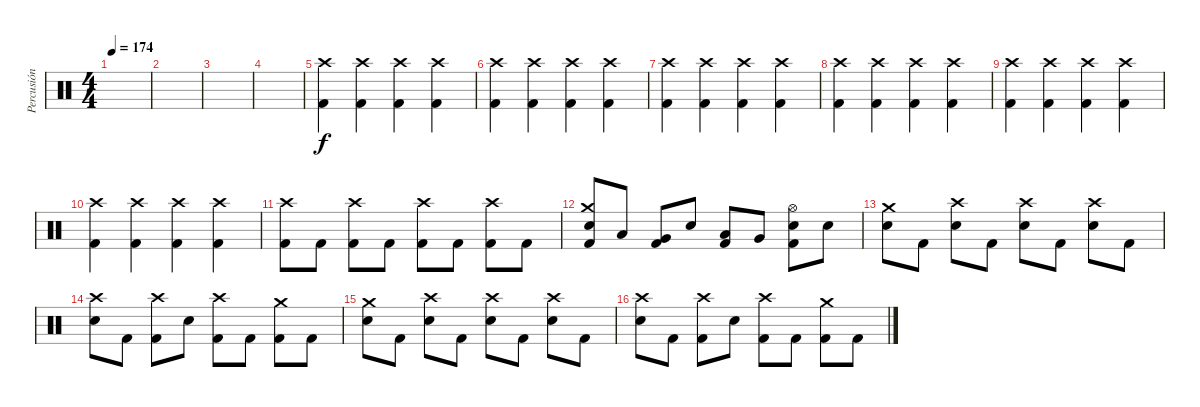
\track ("Percusión" "Percusión") {instrument percussion}
\staff {score}
\articulation defaults
\ts (4 4)
\tempo 174
\clef neutral
\ks c
|
|
|
|
("Crash high (hit)" "Kick (hit) 2").4 ("Crash high (hit)" "Kick (hit) 2").4 ("Crash high (hit)" "Kick (hit) 2").4 ("Crash high (hit)" "Kick (hit) 2").4 |
("Crash high (hit)" "Kick (hit) 2").4 ("Crash high (hit)" "Kick (hit) 2").4 ("Crash high (hit)" "Kick (hit) 2").4 ("Crash high (hit)" "Kick (hit) 2").4 |
("Crash high (hit)" "Kick (hit) 2").4 ("Crash high (hit)" "Kick (hit) 2").4 ("Crash high (hit)" "Kick (hit) 2").4 ("Crash high (hit)" "Kick (hit) 2").4 |
("Crash high (hit)" "Kick (hit) 2").4 ("Crash high (hit)" "Kick (hit) 2").4 ("Crash high (hit)" "Kick (hit) 2").4 ("Crash high (hit)" "Kick (hit) 2").4 |
("Crash high (hit)" "Kick (hit) 2").4 ("Crash high (hit)" "Kick (hit) 2").4 ("Crash high (hit)" "Kick (hit) 2").4 ("Crash high (hit)" "Kick (hit) 2").4 |
("Crash high (hit)" "Kick (hit) 2").4 ("Crash high (hit)" "Kick (hit) 2").4 ("Crash high (hit)" "Kick (hit) 2").4 ("Crash high (hit)" "Kick (hit) 2").4 |
("Crash high (hit)" "Kick (hit) 2").8 "Kick (hit) 2".8 ("Crash high (hit)" "Kick (hit) 2").8 "Kick (hit) 2".8 ("Crash high (hit)" "Kick (hit) 2").8 "Kick (hit) 2".8 ("Crash high (hit)" "Kick (hit) 2").8 "Kick (hit) 2".8 |
("Crash medium (hit)" "Electric Snare (hit)" "Kick (hit) 2").8 "Low Tom (hit)".8 ("Very Low Tom (hit)" "Kick (hit) 2").8 "Electric Snare (hit)".8 ("Low Tom (hit)" "Kick (hit) 2").8 "Very Low Tom (hit)".8 ("Hi-Hat (open)" "Electric Snare (hit)" "Kick (hit) 2").8 "Electric Snare (hit)".8 |
("Crash medium (hit)" "Electric Snare (hit)").8 "Kick (hit) 2".8 ("Crash high (hit)" "Electric Snare (hit)").8 "Kick (hit) 2".8 ("Crash high (hit)" "Electric Snare (hit)").8 "Kick (hit) 2".8 ("Crash high (hit)" "Electric Snare (hit)").8 "Kick (hit) 2".8 |
("Crash high (hit)" "Electric Snare (hit)").8 "Kick (hit) 2".8 ("Crash high (hit)" "Kick (hit) 2").8 "Electric Snare (hit)".8 ("Crash high (hit)" "Kick (hit) 2").8 "Kick (hit) 2".8 ("Crash medium (hit)" "Kick (hit) 2").8 "Kick (hit) 2".8 |
("Crash medium (hit)" "Electric Snare (hit)").8 "Kick (hit) 2".8 ("Crash high (hit)" "Electric Snare (hit)").8 "Kick (hit) 2".8 ("Crash high (hit)" "Electric Snare (hit)").8 "Kick (hit) 2".8 ("Crash high (hit)" "Electric Snare (hit)").8 "Kick (hit) 2".8 |
("Crash high (hit)" "Electric Snare (hit)").8 "Kick (hit) 2".8 ("Crash high (hit)" "Kick (hit) 2").8 "Electric Snare (hit)".8 ("Crash high (hit)" "Kick (hit) 2").8 "Kick (hit) 2".8 ("Crash medium (hit)" "Kick (hit) 2").8 "Kick (hit) 2".8
